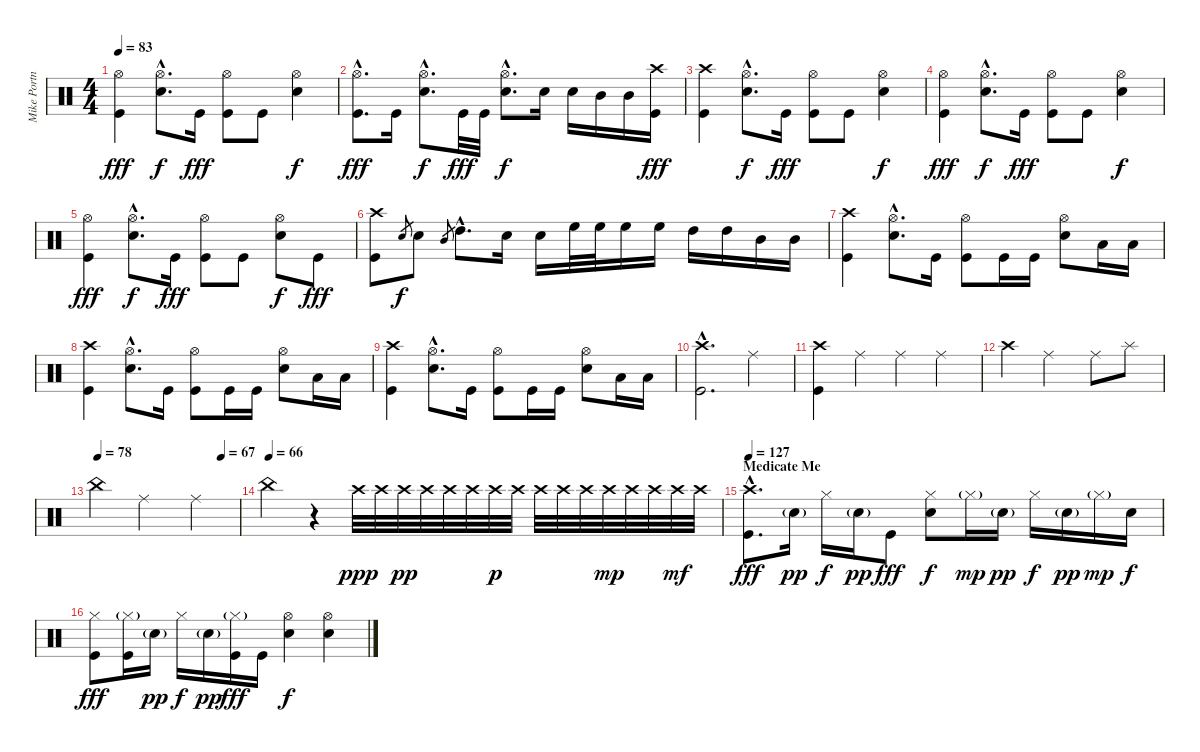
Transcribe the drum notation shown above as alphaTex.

\track ("Mike Portnoy" "Mike Portn") {instrument percussion}
\staff {score}
\articulation defaults
\ts (4 4)
\tempo 83
\clef neutral
\ks c
("Hi-Hat (open)" "Kick (hit)").4{dy fff} ("Hi-Hat (open)"{hac} "Electric Snare (hit)"{hac}).8{d dy f} "Kick (hit)".16{dy fff} ("Hi-Hat (open)" "Kick (hit)").8 "Kick (hit)".8 ("Hi-Hat (open)" "Electric Snare (hit)").4{dy f} |
("Hi-Hat (open)"{hac} "Kick (hit)"{hac}).8{d dy fff} "Kick (hit)".16 ("Hi-Hat (open)"{hac} "Electric Snare (hit)"{hac}).8{d dy f} "Kick (hit)".32{dy fff} "Kick (hit)".32 ("Hi-Hat (open)"{hac} "Electric Snare (hit)"{hac}).8{d dy f} "Electric Snare (hit)".16 "Electric Snare (hit)".16 "Mid Tom (hit)".16 "Mid Tom (hit)".16 ("Crash high (hit)" "Kick (hit)").16{dy fff} |
("Crash high (hit)" "Kick (hit)").4 ("Hi-Hat (open)"{hac} "Electric Snare (hit)"{hac}).8{d dy f} "Kick (hit)".16{dy fff} ("Hi-Hat (open)" "Kick (hit)").8 "Kick (hit)".8 ("Hi-Hat (open)" "Electric Snare (hit)").4{dy f} |
("Hi-Hat (open)" "Kick (hit)").4{dy fff} ("Hi-Hat (open)"{hac} "Electric Snare (hit)"{hac}).8{d dy f} "Kick (hit)".16{dy fff} ("Hi-Hat (open)" "Kick (hit)").8 "Kick (hit)".8 ("Hi-Hat (open)" "Electric Snare (hit)").4{dy f} |
("Hi-Hat (open)" "Kick (hit)").4{dy fff} ("Hi-Hat (open)"{hac} "Electric Snare (hit)"{hac}).8{d dy f} "Kick (hit)".16{dy fff} ("Hi-Hat (open)" "Kick (hit)").8 "Kick (hit)".8 ("Hi-Hat (open)" "Electric Snare (hit)").8{dy f} "Kick (hit)".8{dy fff} |
("Crash high (hit)" "Kick (hit)").8 "Electric Snare (hit)".8{gr dy f} "Electric Snare (hit)".8 "Mid Tom (hit)".8{gr} "High Tom (hit)"{hac}.8{d} "Electric Snare (hit)".16 "Electric Snare (hit)".16 "High Floor Tom (hit)".32 "High Floor Tom (hit)".32 "High Floor Tom (hit)".16 "High Floor Tom (hit)".16 "High Tom (hit)".16 "High Tom (hit)".16 "Mid Tom (hit)".16 "Mid Tom (hit)".16 |
("Crash high (hit)" "Kick (hit)").4 ("Hi-Hat (open)"{hac} "Electric Snare (hit)"{hac}).8{d} "Kick (hit)".16 ("Hi-Hat (open)" "Kick (hit)").8 "Kick (hit)".16 "Kick (hit)".16 ("Hi-Hat (open)" "Electric Snare (hit)").8 "Low Tom (hit)".16 "Low Tom (hit)".16 |
("Crash high (hit)" "Kick (hit)").4 ("Hi-Hat (open)"{hac} "Electric Snare (hit)"{hac}).8{d} "Kick (hit)".16 ("Hi-Hat (open)" "Kick (hit)").8 "Kick (hit)".16 "Kick (hit)".16 ("Hi-Hat (open)" "Electric Snare (hit)").8 "Low Tom (hit)".16 "Low Tom (hit)".16 |
("Crash high (hit)" "Kick (hit)").4 ("Hi-Hat (open)"{hac} "Electric Snare (hit)"{hac}).8{d} "Kick (hit)".16 ("Hi-Hat (open)" "Kick (hit)").8 "Kick (hit)".16 "Kick (hit)".16 ("Hi-Hat (open)" "Electric Snare (hit)").8 "Low Tom (hit)".16 "Low Tom (hit)".16 |
("Crash high (hit)"{hac} "Kick (hit)"{hac}).2{d} "Ride (middle)".4 |
("Crash high (hit)" "Kick (hit)").4 "Ride (middle)".4 "Ride (middle)".4 "Ride (middle)".4 |
"Crash high (hit)".4 "Ride (middle)".2 "Ride (middle)".8 "Splash (hit)".8 |
\tempo (67 0.875)
\tempo (78)
"China (hit)".4 "Ride (middle)".2 "Ride (middle)".4 |
\tempo (66)
"China (hit)".4 r.4 "Crash high (hit)".32{dy ppp} "Crash high (hit)".32 "Crash high (hit)".32{dy pp} "Crash high (hit)".32 "Crash high (hit)".32 "Crash high (hit)".32 "Crash high (hit)".32{dy p} "Crash high (hit)".32 "Crash high (hit)".32 "Crash high (hit)".32 "Crash high (hit)".32 "Crash high (hit)".32{dy mp} "Crash high (hit)".32 "Crash high (hit)".32 "Crash high (hit)".32{dy mf} "Crash high (hit)".32 |
\section ("" "Medicate Me")
\tempo 127
("Crash high (hit)"{hac} "Kick (hit)"{hac}).8{d dy fff} "Electric Snare (hit)"{g}.16{dy pp} "Hi-Hat (closed)".16{dy f} "Electric Snare (hit)"{g}.16{dy pp} "Kick (hit)".8{dy fff} ("Hi-Hat (closed)" "Electric Snare (hit)").8{dy f} "Hi-Hat (closed)"{g}.16{dy mp} "Electric Snare (hit)"{g}.16{dy pp} "Hi-Hat (closed)".16{dy f} "Electric Snare (hit)"{g}.16{dy pp} "Hi-Hat (closed)"{g}.16{dy mp} "Electric Snare (hit)".16{dy f} |
("Hi-Hat (closed)" "Kick (hit)").8{dy fff} ("Hi-Hat (closed)"{g} "Kick (hit)").16 "Electric Snare (hit)"{g}.16{dy pp} "Hi-Hat (closed)".16{dy f} "Electric Snare (hit)"{g}.16{dy pp} ("Hi-Hat (closed)"{g} "Kick (hit)").16{dy fff} "Kick (hit)".16 ("Hi-Hat (open)" "Electric Snare (hit)").4{dy f} ("Hi-Hat (open)" "Electric Snare (hit)").4
